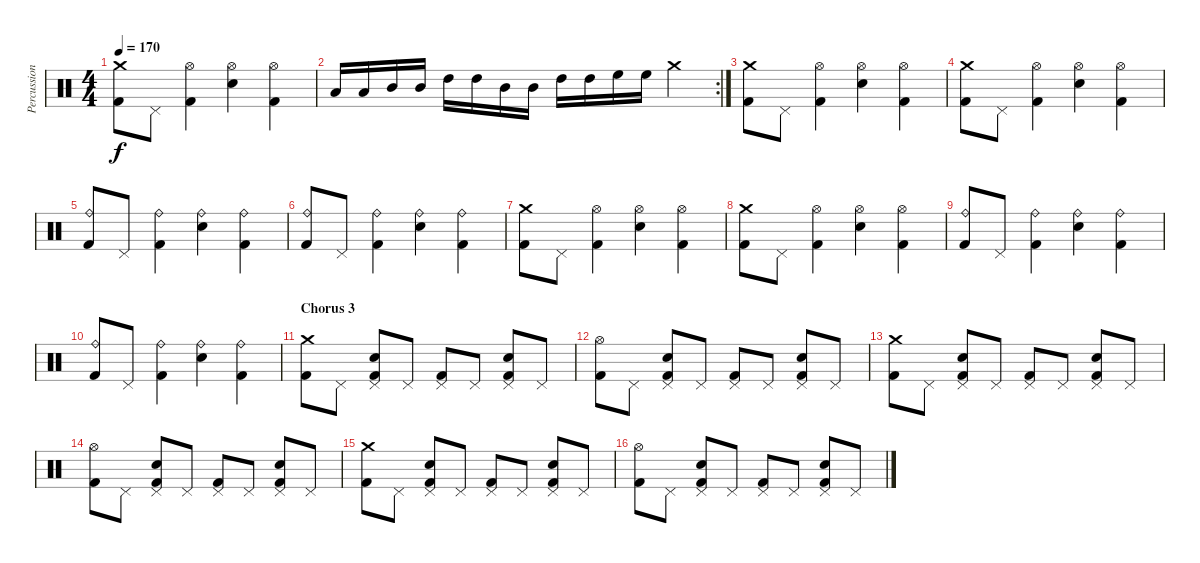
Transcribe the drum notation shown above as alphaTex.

\track ("Percussion" "Percussion") {instrument percussion}
\staff {score}
\articulation defaults
\ts (4 4)
\tempo 170
\clef neutral
\ks c
("Crash medium (hit)" "Kick (hit) 2").8{dy f} "Pedal Hi-Hat (hit)".8 ("Hi-Hat (open)" "Kick (hit) 2").4 ("Hi-Hat (open)" "Electric Snare (hit)").4 ("Hi-Hat (open)" "Kick (hit) 2").4 |
\rc 2 "Low Tom (hit)".16 "Low Tom (hit)".16 "Mid Tom (hit)".16 "Mid Tom (hit)".16 "High Tom (hit)".16 "High Tom (hit)".16 "Mid Tom (hit)".16 "Mid Tom (hit)".16 "High Tom (hit)".16 "High Tom (hit)".16 "High Floor Tom (hit)".16 "High Floor Tom (hit)".16 "Crash medium (hit)".4
|
("Crash medium (hit)" "Kick (hit) 2").8 "Pedal Hi-Hat (hit)".8 ("Hi-Hat (open)" "Kick (hit) 2").4 ("Hi-Hat (open)" "Electric Snare (hit)").4 ("Hi-Hat (open)" "Kick (hit) 2").4 |
("Crash medium (hit)" "Kick (hit) 2").8 "Pedal Hi-Hat (hit)".8 ("Hi-Hat (open)" "Kick (hit) 2").4 ("Hi-Hat (open)" "Electric Snare (hit)").4 ("Hi-Hat (open)" "Kick (hit) 2").4 |
("Ride (bell)" "Kick (hit) 2").8 "Pedal Hi-Hat (hit)".8 ("Ride (bell)" "Kick (hit) 2").4 ("Ride (bell)" "Electric Snare (hit)").4 ("Ride (bell)" "Kick (hit) 2").4 |
("Ride (bell)" "Kick (hit) 2").8 "Pedal Hi-Hat (hit)".8 ("Ride (bell)" "Kick (hit) 2").4 ("Ride (bell)" "Electric Snare (hit)").4 ("Ride (bell)" "Kick (hit) 2").4 |
("Crash medium (hit)" "Kick (hit) 2").8 "Pedal Hi-Hat (hit)".8 ("Hi-Hat (open)" "Kick (hit) 2").4 ("Hi-Hat (open)" "Electric Snare (hit)").4 ("Hi-Hat (open)" "Kick (hit) 2").4 |
("Crash medium (hit)" "Kick (hit) 2").8 "Pedal Hi-Hat (hit)".8 ("Hi-Hat (open)" "Kick (hit) 2").4 ("Hi-Hat (open)" "Electric Snare (hit)").4 ("Hi-Hat (open)" "Kick (hit) 2").4 |
("Ride (bell)" "Kick (hit) 2").8 "Pedal Hi-Hat (hit)".8 ("Ride (bell)" "Kick (hit) 2").4 ("Ride (bell)" "Electric Snare (hit)").4 ("Ride (bell)" "Kick (hit) 2").4 |
("Ride (bell)" "Kick (hit) 2").8 "Pedal Hi-Hat (hit)".8 ("Ride (bell)" "Kick (hit) 2").4 ("Ride (bell)" "Electric Snare (hit)").4 ("Ride (bell)" "Kick (hit) 2").4 |
\section ("" "Chorus 3")
("Crash medium (hit)" "Kick (hit) 2").8 "Pedal Hi-Hat (hit)".8 ("Pedal Hi-Hat (hit)" "Electric Snare (hit)" "Kick (hit) 2").8 "Pedal Hi-Hat (hit)".8 ("Pedal Hi-Hat (hit)" "Kick (hit) 2").8 "Pedal Hi-Hat (hit)".8 ("Pedal Hi-Hat (hit)" "Electric Snare (hit)" "Kick (hit) 2").8 "Pedal Hi-Hat (hit)".8 |
("Hi-Hat (open)" "Kick (hit) 2").8 "Pedal Hi-Hat (hit)".8 ("Pedal Hi-Hat (hit)" "Electric Snare (hit)" "Kick (hit) 2").8 "Pedal Hi-Hat (hit)".8 ("Pedal Hi-Hat (hit)" "Kick (hit) 2").8 "Pedal Hi-Hat (hit)".8 ("Pedal Hi-Hat (hit)" "Electric Snare (hit)" "Kick (hit) 2").8 "Pedal Hi-Hat (hit)".8 |
("Crash medium (hit)" "Kick (hit) 2").8 "Pedal Hi-Hat (hit)".8 ("Pedal Hi-Hat (hit)" "Electric Snare (hit)" "Kick (hit) 2").8 "Pedal Hi-Hat (hit)".8 ("Pedal Hi-Hat (hit)" "Kick (hit) 2").8 "Pedal Hi-Hat (hit)".8 ("Pedal Hi-Hat (hit)" "Electric Snare (hit)" "Kick (hit) 2").8 "Pedal Hi-Hat (hit)".8 |
("Hi-Hat (open)" "Kick (hit) 2").8 "Pedal Hi-Hat (hit)".8 ("Pedal Hi-Hat (hit)" "Electric Snare (hit)" "Kick (hit) 2").8 "Pedal Hi-Hat (hit)".8 ("Pedal Hi-Hat (hit)" "Kick (hit) 2").8 "Pedal Hi-Hat (hit)".8 ("Pedal Hi-Hat (hit)" "Electric Snare (hit)" "Kick (hit) 2").8 "Pedal Hi-Hat (hit)".8 |
("Crash medium (hit)" "Kick (hit) 2").8 "Pedal Hi-Hat (hit)".8 ("Pedal Hi-Hat (hit)" "Electric Snare (hit)" "Kick (hit) 2").8 "Pedal Hi-Hat (hit)".8 ("Pedal Hi-Hat (hit)" "Kick (hit) 2").8 "Pedal Hi-Hat (hit)".8 ("Pedal Hi-Hat (hit)" "Electric Snare (hit)" "Kick (hit) 2").8 "Pedal Hi-Hat (hit)".8 |
("Hi-Hat (open)" "Kick (hit) 2").8 "Pedal Hi-Hat (hit)".8 ("Pedal Hi-Hat (hit)" "Electric Snare (hit)" "Kick (hit) 2").8 "Pedal Hi-Hat (hit)".8 ("Pedal Hi-Hat (hit)" "Kick (hit) 2").8 "Pedal Hi-Hat (hit)".8 ("Pedal Hi-Hat (hit)" "Electric Snare (hit)" "Kick (hit) 2").8 "Pedal Hi-Hat (hit)".8
